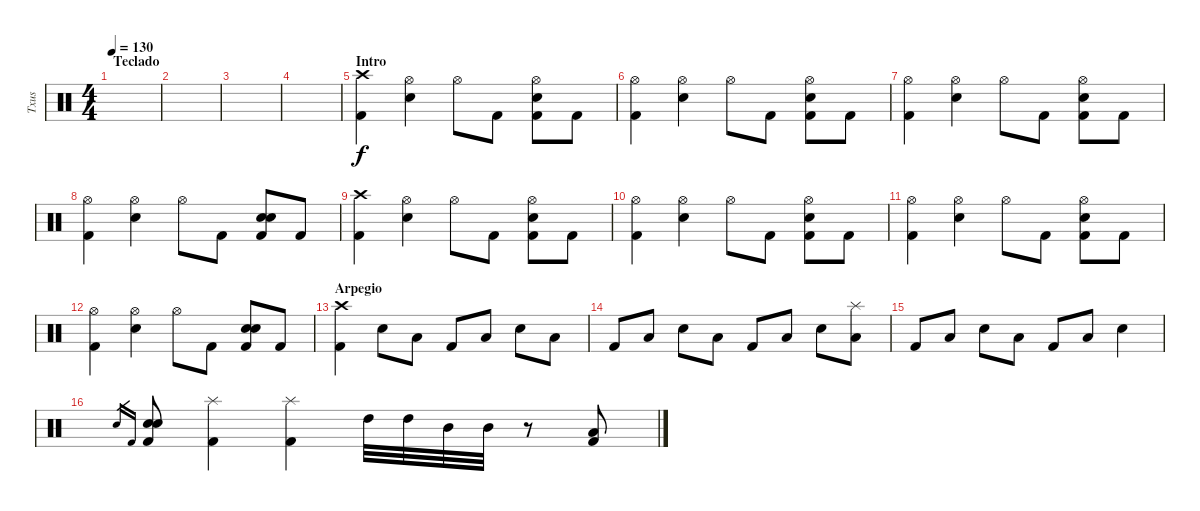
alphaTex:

\track ("Txus" "Txus") {instrument percussion}
\staff {score}
\articulation defaults
\ts (4 4)
\section ("" "Teclado")
\tempo 130
\clef neutral
\ks c
|
|
|
|
\section ("" "Intro")
("Kick (hit) 2" "Crash high (hit)").4 ("Electric Snare (hit)" "Hi-Hat (open)").4 "Hi-Hat (open)".8 "Kick (hit) 2".8 ("Kick (hit) 2" "Electric Snare (hit)" "Hi-Hat (open)").8 "Kick (hit) 2".8 |
("Kick (hit) 2" "Hi-Hat (open)").4 ("Electric Snare (hit)" "Hi-Hat (open)").4 "Hi-Hat (open)".8 "Kick (hit) 2".8 ("Kick (hit) 2" "Electric Snare (hit)" "Hi-Hat (open)").8 "Kick (hit) 2".8 |
("Kick (hit) 2" "Hi-Hat (open)").4 ("Electric Snare (hit)" "Hi-Hat (open)").4 "Hi-Hat (open)".8 "Kick (hit) 2".8 ("Kick (hit) 2" "Electric Snare (hit)" "Hi-Hat (open)").8 "Kick (hit) 2".8 |
("Kick (hit) 2" "Hi-Hat (open)").4 ("Electric Snare (hit)" "Hi-Hat (open)").4 "Hi-Hat (open)".8 "Kick (hit) 2".8 ("Kick (hit) 2" "Electric Snare (hit)" "Snare (hit) 2").8 "Kick (hit) 2".8 |
("Kick (hit) 2" "Crash high (hit)").4 ("Electric Snare (hit)" "Hi-Hat (open)").4 "Hi-Hat (open)".8 "Kick (hit) 2".8 ("Kick (hit) 2" "Electric Snare (hit)" "Hi-Hat (open)").8 "Kick (hit) 2".8 |
("Kick (hit) 2" "Hi-Hat (open)").4 ("Electric Snare (hit)" "Hi-Hat (open)").4 "Hi-Hat (open)".8 "Kick (hit) 2".8 ("Kick (hit) 2" "Electric Snare (hit)" "Hi-Hat (open)").8 "Kick (hit) 2".8 |
("Kick (hit) 2" "Hi-Hat (open)").4 ("Electric Snare (hit)" "Hi-Hat (open)").4 "Hi-Hat (open)".8 "Kick (hit) 2".8 ("Kick (hit) 2" "Electric Snare (hit)" "Hi-Hat (open)").8 "Kick (hit) 2".8 |
("Kick (hit) 2" "Hi-Hat (open)").4 ("Electric Snare (hit)" "Hi-Hat (open)").4 "Hi-Hat (open)".8 "Kick (hit) 2".8 ("Kick (hit) 2" "Electric Snare (hit)" "Snare (hit) 2").8 "Kick (hit) 2".8 |
\section ("" "Arpegio")
("Kick (hit) 2" "Crash high (hit)").4 "Electric Snare (hit)".8 "Low Tom (hit)".8 "Kick (hit) 2".8 "Low Tom (hit)".8 "Electric Snare (hit)".8 "Low Tom (hit)".8 |
"Kick (hit) 2".8 "Low Tom (hit)".8 "Electric Snare (hit)".8 "Low Tom (hit)".8 "Kick (hit) 2".8 "Low Tom (hit)".8 "Electric Snare (hit)".8 ("Low Tom (hit)" "Splash (hit)").8 |
"Kick (hit) 2".8 "Low Tom (hit)".8 "Electric Snare (hit)".8 "Low Tom (hit)".8 "Kick (hit) 2".8 "Low Tom (hit)".8 "Electric Snare (hit)".4 |
"Electric Snare (hit)".16{gr} "Kick (hit) 2".16{gr} ("Kick (hit) 2" "Electric Snare (hit)" "Snare (hit) 2").8 ("Kick (hit) 2" "Splash (hit)").4 ("Kick (hit) 2" "Splash (hit)").4 "High Tom (hit)".32 "High Tom (hit)".32 "Mid Tom (hit)".32 "Mid Tom (hit)".32 r.8 ("Kick (hit) 2" "Low Tom (hit)").8
